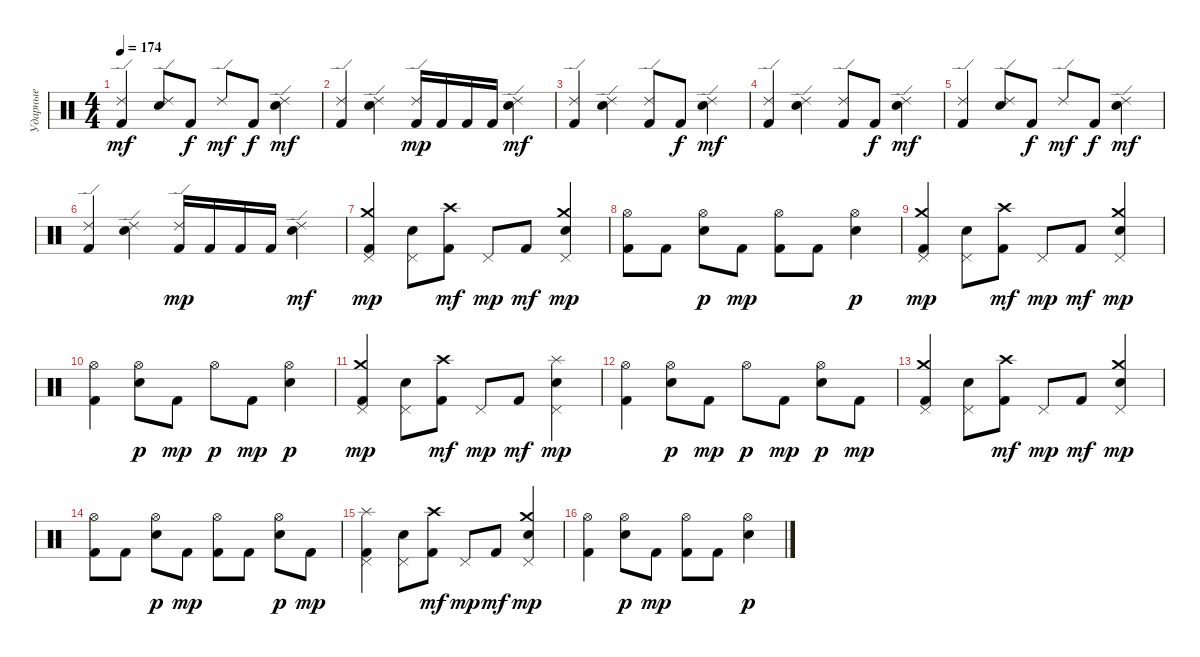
\track ("Ударные" "Ударные") {instrument percussion}
\staff {score}
\articulation defaults
\ts (4 4)
\tempo 174
\clef neutral
\ks c
("Ride (edge) 2" "Kick (hit) 2").4{dy mf} ("Ride (edge) 2" "Electric Snare (hit)").8 "Kick (hit) 2".8{dy f} "Ride (edge) 2".8{dy mf} "Kick (hit) 2".8{dy f} ("Ride (edge) 2" "Electric Snare (hit)").4{dy mf} |
("Ride (edge) 2" "Kick (hit) 2").4 ("Ride (edge) 2" "Electric Snare (hit)").4 ("Ride (edge) 2" "Kick (hit) 2").16{dy mp} "Kick (hit) 2".16 "Kick (hit) 2".16 "Kick (hit) 2".16 ("Ride (edge) 2" "Electric Snare (hit)").4{dy mf} |
("Ride (edge) 2" "Kick (hit) 2").4 ("Ride (edge) 2" "Electric Snare (hit)").4 ("Ride (edge) 2" "Kick (hit) 2").8 "Kick (hit) 2".8{dy f} ("Ride (edge) 2" "Electric Snare (hit)").4{dy mf} |
("Ride (edge) 2" "Kick (hit) 2").4 ("Ride (edge) 2" "Electric Snare (hit)").4 ("Ride (edge) 2" "Kick (hit) 2").8 "Kick (hit) 2".8{dy f} ("Ride (edge) 2" "Electric Snare (hit)").4{dy mf} |
("Ride (edge) 2" "Kick (hit) 2").4 ("Ride (edge) 2" "Electric Snare (hit)").8 "Kick (hit) 2".8{dy f} "Ride (edge) 2".8{dy mf} "Kick (hit) 2".8{dy f} ("Ride (edge) 2" "Electric Snare (hit)").4{dy mf} |
("Ride (edge) 2" "Kick (hit) 2").4 ("Ride (edge) 2" "Electric Snare (hit)").4 ("Ride (edge) 2" "Kick (hit) 2").16{dy mp} "Kick (hit) 2".16 "Kick (hit) 2".16 "Kick (hit) 2".16 ("Ride (edge) 2" "Electric Snare (hit)").4{dy mf} |
\section ("" "")
("Crash medium (hit)" "Kick (hit) 2" "Pedal Hi-Hat (hit)").4{dy mp} ("Electric Snare (hit)" "Pedal Hi-Hat (hit)").8 ("Crash high (hit)" "Kick (hit) 2").8{dy mf} "Pedal Hi-Hat (hit)".8{dy mp} "Kick (hit) 2".8{dy mf} ("Crash medium (hit)" "Electric Snare (hit)" "Pedal Hi-Hat (hit)").4{dy mp} |
("Hi-Hat (open)" "Kick (hit) 2").8 "Kick (hit) 2".8 ("Hi-Hat (open)" "Electric Snare (hit)").8{dy p} "Kick (hit) 2".8{dy mp} ("Hi-Hat (open)" "Kick (hit) 2").8 "Kick (hit) 2".8 ("Hi-Hat (open)" "Electric Snare (hit)").4{dy p} |
("Crash medium (hit)" "Kick (hit) 2" "Pedal Hi-Hat (hit)").4{dy mp} ("Electric Snare (hit)" "Pedal Hi-Hat (hit)").8 ("Crash high (hit)" "Kick (hit) 2").8{dy mf} "Pedal Hi-Hat (hit)".8{dy mp} "Kick (hit) 2".8{dy mf} ("Crash medium (hit)" "Electric Snare (hit)" "Pedal Hi-Hat (hit)").4{dy mp} |
("Hi-Hat (open)" "Kick (hit) 2").4 ("Hi-Hat (open)" "Electric Snare (hit)").8{dy p} "Kick (hit) 2".8{dy mp} "Hi-Hat (open)".8{dy p} "Kick (hit) 2".8{dy mp} ("Hi-Hat (open)" "Electric Snare (hit)").4{dy p} |
("Crash medium (hit)" "Kick (hit) 2" "Pedal Hi-Hat (hit)").4{dy mp} ("Electric Snare (hit)" "Pedal Hi-Hat (hit)").8 ("Crash high (hit)" "Kick (hit) 2").8{dy mf} "Pedal Hi-Hat (hit)".8{dy mp} "Kick (hit) 2".8{dy mf} ("Splash (hit)" "Electric Snare (hit)" "Pedal Hi-Hat (hit)").4{dy mp} |
("Hi-Hat (open)" "Kick (hit) 2").4 ("Hi-Hat (open)" "Electric Snare (hit)").8{dy p} "Kick (hit) 2".8{dy mp} "Hi-Hat (open)".8{dy p} "Kick (hit) 2".8{dy mp} ("Hi-Hat (open)" "Electric Snare (hit)").8{dy p} "Kick (hit) 2".8{dy mp} |
("Crash medium (hit)" "Kick (hit) 2" "Pedal Hi-Hat (hit)").4 ("Electric Snare (hit)" "Pedal Hi-Hat (hit)").8 ("Crash high (hit)" "Kick (hit) 2").8{dy mf} "Pedal Hi-Hat (hit)".8{dy mp} "Kick (hit) 2".8{dy mf} ("Crash medium (hit)" "Electric Snare (hit)" "Pedal Hi-Hat (hit)").4{dy mp} |
("Hi-Hat (open)" "Kick (hit) 2").8 "Kick (hit) 2".8 ("Hi-Hat (open)" "Electric Snare (hit)").8{dy p} "Kick (hit) 2".8{dy mp} ("Hi-Hat (open)" "Kick (hit) 2").8 "Kick (hit) 2".8 ("Hi-Hat (open)" "Electric Snare (hit)").8{dy p} "Kick (hit) 2".8{dy mp} |
("Splash (hit)" "Kick (hit) 2" "Pedal Hi-Hat (hit)").4 ("Electric Snare (hit)" "Pedal Hi-Hat (hit)").8 ("Crash high (hit)" "Kick (hit) 2").8{dy mf} "Pedal Hi-Hat (hit)".8{dy mp} "Kick (hit) 2".8{dy mf} ("Crash medium (hit)" "Electric Snare (hit)" "Pedal Hi-Hat (hit)").4{dy mp} |
("Hi-Hat (open)" "Kick (hit) 2").4 ("Hi-Hat (open)" "Electric Snare (hit)").8{dy p} "Kick (hit) 2".8{dy mp} ("Hi-Hat (open)" "Kick (hit) 2").8 "Kick (hit) 2".8 ("Hi-Hat (open)" "Electric Snare (hit)").4{dy p}
